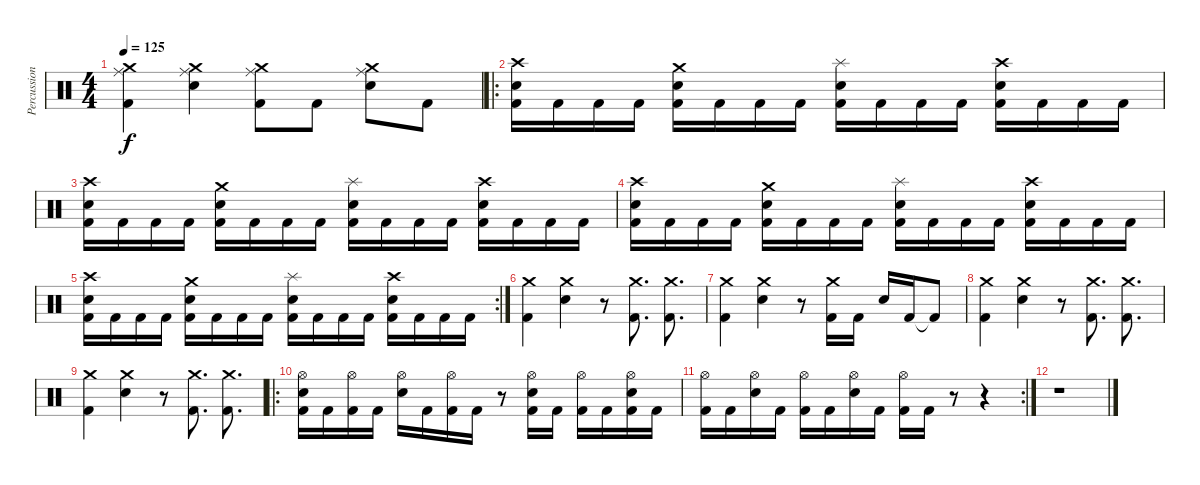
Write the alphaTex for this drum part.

\track ("Percussions" "Percussion") {instrument percussion}
\staff {score}
\articulation defaults
\ts (4 4)
\tempo 125
\clef neutral
\ks c
("Ride (middle)" "Crash medium (hit)" "Kick (hit) 2").4{dy f} ("Ride (middle)" "Crash medium (hit)" "Electric Snare (hit)").4 ("Ride (middle)" "Crash medium (hit)" "Kick (hit) 2").8 "Kick (hit) 2".8 ("Ride (middle)" "Crash medium (hit)" "Electric Snare (hit)").8 "Kick (hit) 2".8 |
\ro
("Crash high (hit)" "Electric Snare (hit)" "Kick (hit) 2").16 "Kick (hit) 2".16 "Kick (hit) 2".16 "Kick (hit) 2".16 ("Crash medium (hit)" "Electric Snare (hit)" "Kick (hit) 2").16 "Kick (hit) 2".16 "Kick (hit) 2".16 "Kick (hit) 2".16 ("Splash (hit)" "Electric Snare (hit)" "Kick (hit) 2").16 "Kick (hit) 2".16 "Kick (hit) 2".16 "Kick (hit) 2".16 ("Crash high (hit)" "Electric Snare (hit)" "Kick (hit) 2").16 "Kick (hit) 2".16 "Kick (hit) 2".16 "Kick (hit) 2".16 |
("Crash high (hit)" "Electric Snare (hit)" "Kick (hit) 2").16 "Kick (hit) 2".16 "Kick (hit) 2".16 "Kick (hit) 2".16 ("Crash medium (hit)" "Electric Snare (hit)" "Kick (hit) 2").16 "Kick (hit) 2".16 "Kick (hit) 2".16 "Kick (hit) 2".16 ("Splash (hit)" "Electric Snare (hit)" "Kick (hit) 2").16 "Kick (hit) 2".16 "Kick (hit) 2".16 "Kick (hit) 2".16 ("Crash high (hit)" "Electric Snare (hit)" "Kick (hit) 2").16 "Kick (hit) 2".16 "Kick (hit) 2".16 "Kick (hit) 2".16 |
("Crash high (hit)" "Electric Snare (hit)" "Kick (hit) 2").16 "Kick (hit) 2".16 "Kick (hit) 2".16 "Kick (hit) 2".16 ("Crash medium (hit)" "Electric Snare (hit)" "Kick (hit) 2").16 "Kick (hit) 2".16 "Kick (hit) 2".16 "Kick (hit) 2".16 ("Splash (hit)" "Electric Snare (hit)" "Kick (hit) 2").16 "Kick (hit) 2".16 "Kick (hit) 2".16 "Kick (hit) 2".16 ("Crash high (hit)" "Electric Snare (hit)" "Kick (hit) 2").16 "Kick (hit) 2".16 "Kick (hit) 2".16 "Kick (hit) 2".16 |
\rc 2
("Crash high (hit)" "Electric Snare (hit)" "Kick (hit) 2").16 "Kick (hit) 2".16 "Kick (hit) 2".16 "Kick (hit) 2".16 ("Crash medium (hit)" "Electric Snare (hit)" "Kick (hit) 2").16 "Kick (hit) 2".16 "Kick (hit) 2".16 "Kick (hit) 2".16 ("Splash (hit)" "Electric Snare (hit)" "Kick (hit) 2").16 "Kick (hit) 2".16 "Kick (hit) 2".16 "Kick (hit) 2".16 ("Crash high (hit)" "Electric Snare (hit)" "Kick (hit) 2").16 "Kick (hit) 2".16 "Kick (hit) 2".16 "Kick (hit) 2".16 |
("Crash medium (hit)" "Kick (hit) 2").4 ("Crash medium (hit)" "Electric Snare (hit)").4 r.8 ("Crash medium (hit)" "Kick (hit) 2").8{d} ("Crash medium (hit)" "Kick (hit) 2").8{d} |
("Crash medium (hit)" "Kick (hit) 2").4 ("Crash medium (hit)" "Electric Snare (hit)").4 r.8 ("Crash medium (hit)" "Kick (hit) 2").16 "Kick (hit) 2".16 "Electric Snare (hit)".16 "Kick (hit) 2".16 "Kick (hit) 2"{t}.8 |
("Crash medium (hit)" "Kick (hit) 2").4 ("Crash medium (hit)" "Electric Snare (hit)").4 r.8 ("Crash medium (hit)" "Kick (hit) 2").8{d} ("Crash medium (hit)" "Kick (hit) 2").8{d} |
("Crash medium (hit)" "Kick (hit) 2").4 ("Crash medium (hit)" "Electric Snare (hit)").4 r.8 ("Crash medium (hit)" "Kick (hit) 2").8{d} ("Crash medium (hit)" "Kick (hit) 2").8{d} |
\ro
("Hi-Hat (open)" "Electric Snare (hit)" "Kick (hit) 2").16 "Kick (hit) 2".16 ("Hi-Hat (open)" "Kick (hit) 2").16 "Kick (hit) 2".16 ("Hi-Hat (open)" "Electric Snare (hit)").16 "Kick (hit) 2".16 ("Hi-Hat (open)" "Kick (hit) 2").16 "Kick (hit) 2".16 r.8 ("Hi-Hat (open)" "Electric Snare (hit)" "Kick (hit) 2").16 "Kick (hit) 2".16 ("Hi-Hat (open)" "Kick (hit) 2").16 "Kick (hit) 2".16 ("Hi-Hat (open)" "Electric Snare (hit)" "Kick (hit) 2").16 "Kick (hit) 2".16 |
\rc 2
("Hi-Hat (open)" "Kick (hit) 2").16 "Kick (hit) 2".16 ("Hi-Hat (open)" "Electric Snare (hit)").16 "Kick (hit) 2".16 ("Hi-Hat (open)" "Kick (hit) 2").16 "Kick (hit) 2".16 ("Hi-Hat (open)" "Electric Snare (hit)").16 "Kick (hit) 2".16 ("Hi-Hat (open)" "Kick (hit) 2").16 "Kick (hit) 2".16 r.8 r.4 |
r.1
